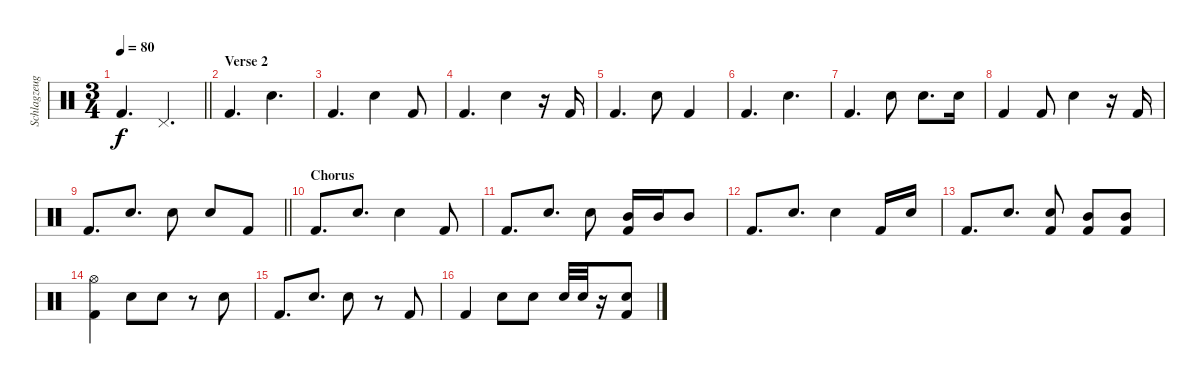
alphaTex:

\track ("Schlagzeug" "Schlagzeug") {instrument percussion}
\staff {score}
\articulation defaults
\ts (3 4)
\tempo 80
\clef neutral
\barLineRight lightlight
\ks c "Kick (hit) 2".4{d dy f} "Pedal Hi-Hat (hit)".4{d}
|
\section ("" "Verse 2")
"Kick (hit) 2".4{d} "Snare (hit) 2".4{d} |
"Kick (hit) 2".4{d} "Snare (hit) 2".4 "Kick (hit) 2".8 |
"Kick (hit) 2".4{d} "Snare (hit) 2".4 r.16 "Kick (hit) 2".16 |
"Kick (hit) 2".4{d} "Snare (hit) 2".8 "Kick (hit) 2".4 |
"Kick (hit) 2".4{d} "Snare (hit) 2".4{d} |
"Kick (hit) 2".4{d} "Snare (hit) 2".8 "Snare (hit) 2".8{d} "Snare (hit) 2".16 |
"Kick (hit) 2".4 "Kick (hit) 2".8 "Snare (hit) 2".4 r.16 "Kick (hit) 2".16 |
\barLineRight lightlight "Kick (hit) 2".8{d} "Snare (hit) 2".8{d} "Snare (hit) 2".8 "Snare (hit) 2".8 "Kick (hit) 2".8
|
\section ("" "Chorus")
"Kick (hit) 2".8{d} "Snare (hit) 2".8{d} "Snare (hit) 2".4 "Kick (hit) 2".8 |
"Kick (hit) 2".8{d} "Snare (hit) 2".8{d} "Snare (hit) 2".8 ("Mid Tom (hit)" "Kick (hit) 2").16 "Mid Tom (hit)".16 "Mid Tom (hit)".8 |
"Kick (hit) 2".8{d} "Snare (hit) 2".8{d} "Snare (hit) 2".4 "Kick (hit) 2".16 "Snare (hit) 2".16 |
"Kick (hit) 2".8{d} "Snare (hit) 2".8{d} ("Snare (hit) 2" "Kick (hit) 2").8 ("Mid Tom (hit)" "Kick (hit) 2").8 ("Mid Tom (hit)" "Kick (hit) 2").8 |
("Hi-Hat (open)" "Kick (hit) 2").4 "Snare (hit) 2".8 "Snare (hit) 2".8 r.8 "Snare (hit) 2".8 |
"Kick (hit) 2".8{d} "Snare (hit) 2".8{d} "Snare (hit) 2".8 r.8 "Kick (hit) 2".8 |
"Kick (hit) 2".4 "Snare (hit) 2".8 "Snare (hit) 2".8 "Snare (hit) 2".32 "Snare (hit) 2".32 r.16 ("Snare (hit) 2" "Kick (hit) 2").8
